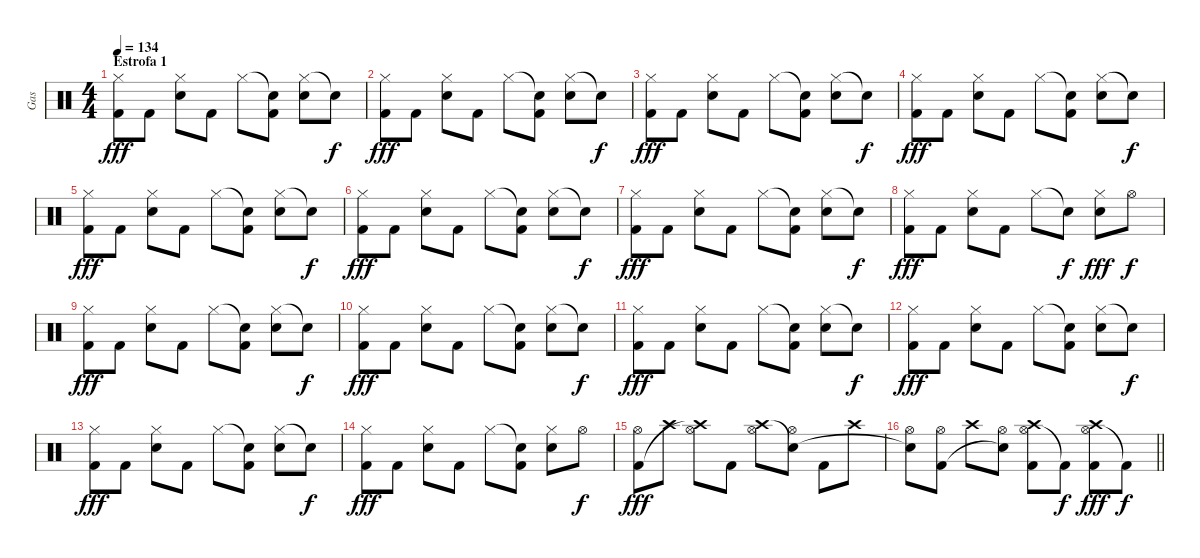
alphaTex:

\track ("Gas" "Gas") {instrument percussion}
\staff {score}
\articulation defaults
\ts (4 4)
\section ("" "Estrofa 1")
\tempo 134
\clef neutral
\ks c
("Hi-Hat (closed)" "Kick (hit) 2").8{dy fff} "Kick (hit) 2".8 ("Hi-Hat (closed)" "Snare (hit) 2").8 "Kick (hit) 2".8 "Hi-Hat (closed)".8 ("Snare (hit)"{t} "Kick (hit) 2").8 ("Hi-Hat (closed)" "Snare (hit) 2").8 "Snare (hit)"{t}.8{dy f} |
("Hi-Hat (closed)" "Kick (hit) 2").8{dy fff} "Kick (hit) 2".8 ("Hi-Hat (closed)" "Snare (hit) 2").8 "Kick (hit) 2".8 "Hi-Hat (closed)".8 ("Snare (hit)"{t} "Kick (hit) 2").8 ("Hi-Hat (closed)" "Snare (hit) 2").8 "Snare (hit)"{t}.8{dy f} |
("Hi-Hat (closed)" "Kick (hit) 2").8{dy fff} "Kick (hit) 2".8 ("Hi-Hat (closed)" "Snare (hit) 2").8 "Kick (hit) 2".8 "Hi-Hat (closed)".8 ("Snare (hit)"{t} "Kick (hit) 2").8 ("Hi-Hat (closed)" "Snare (hit) 2").8 "Snare (hit)"{t}.8{dy f} |
("Hi-Hat (closed)" "Kick (hit) 2").8{dy fff} "Kick (hit) 2".8 ("Hi-Hat (closed)" "Snare (hit) 2").8 "Kick (hit) 2".8 "Hi-Hat (closed)".8 ("Snare (hit)"{t} "Kick (hit) 2").8 ("Hi-Hat (closed)" "Snare (hit) 2").8 "Snare (hit)"{t}.8{dy f} |
("Hi-Hat (closed)" "Kick (hit) 2").8{dy fff} "Kick (hit) 2".8 ("Hi-Hat (closed)" "Snare (hit) 2").8 "Kick (hit) 2".8 "Hi-Hat (closed)".8 ("Snare (hit)"{t} "Kick (hit) 2").8 ("Hi-Hat (closed)" "Snare (hit) 2").8 "Snare (hit)"{t}.8{dy f} |
("Hi-Hat (closed)" "Kick (hit) 2").8{dy fff} "Kick (hit) 2".8 ("Hi-Hat (closed)" "Snare (hit) 2").8 "Kick (hit) 2".8 "Hi-Hat (closed)".8 ("Snare (hit)"{t} "Kick (hit) 2").8 ("Hi-Hat (closed)" "Snare (hit) 2").8 "Snare (hit)"{t}.8{dy f} |
("Hi-Hat (closed)" "Kick (hit) 2").8{dy fff} "Kick (hit) 2".8 ("Hi-Hat (closed)" "Snare (hit) 2").8 "Kick (hit) 2".8 "Hi-Hat (closed)".8 ("Snare (hit)"{t} "Kick (hit) 2").8 ("Hi-Hat (closed)" "Snare (hit) 2").8 "Snare (hit)"{t}.8{dy f} |
("Hi-Hat (closed)" "Kick (hit) 2").8{dy fff} "Kick (hit) 2".8 ("Hi-Hat (closed)" "Snare (hit) 2").8 "Kick (hit) 2".8 "Hi-Hat (closed)".8 "Snare (hit)"{t}.8{dy f} ("Hi-Hat (closed)" "Snare (hit) 2").8{dy fff} "Hi-Hat (open)".8{dy f} |
("Hi-Hat (closed)" "Kick (hit) 2").8{dy fff} "Kick (hit) 2".8 ("Hi-Hat (closed)" "Snare (hit) 2").8 "Kick (hit) 2".8 "Hi-Hat (closed)".8 ("Snare (hit)"{t} "Kick (hit) 2").8 ("Hi-Hat (closed)" "Snare (hit) 2").8 "Snare (hit)"{t}.8{dy f} |
("Hi-Hat (closed)" "Kick (hit) 2").8{dy fff} "Kick (hit) 2".8 ("Hi-Hat (closed)" "Snare (hit) 2").8 "Kick (hit) 2".8 "Hi-Hat (closed)".8 ("Snare (hit)"{t} "Kick (hit) 2").8 ("Hi-Hat (closed)" "Snare (hit) 2").8 "Snare (hit)"{t}.8{dy f} |
("Hi-Hat (closed)" "Kick (hit) 2").8{dy fff} "Kick (hit) 2".8 ("Hi-Hat (closed)" "Snare (hit) 2").8 "Kick (hit) 2".8 "Hi-Hat (closed)".8 ("Snare (hit)"{t} "Kick (hit) 2").8 ("Hi-Hat (closed)" "Snare (hit) 2").8 "Snare (hit)"{t}.8{dy f} |
("Hi-Hat (closed)" "Kick (hit) 2").8{dy fff} "Kick (hit) 2".8 ("Hi-Hat (closed)" "Snare (hit) 2").8 "Kick (hit) 2".8 "Hi-Hat (closed)".8 ("Snare (hit)"{t} "Kick (hit) 2").8 ("Hi-Hat (closed)" "Snare (hit) 2").8 "Snare (hit)"{t}.8{dy f} |
("Hi-Hat (closed)" "Kick (hit) 2").8{dy fff} "Kick (hit) 2".8 ("Hi-Hat (closed)" "Snare (hit) 2").8 "Kick (hit) 2".8 "Hi-Hat (closed)".8 ("Snare (hit)"{t} "Kick (hit) 2").8 ("Hi-Hat (closed)" "Snare (hit) 2").8 "Snare (hit)"{t}.8{dy f} |
("Hi-Hat (closed)" "Kick (hit) 2").8{dy fff} "Kick (hit) 2".8 ("Hi-Hat (closed)" "Snare (hit) 2").8 "Kick (hit) 2".8 "Hi-Hat (closed)".8 ("Snare (hit)"{t} "Kick (hit) 2").8 ("Hi-Hat (closed)" "Snare (hit) 2").8 "Hi-Hat (open)".8{dy f} |
("Hi-Hat (open)" "Kick (hit) 2").8{dy fff} "Crash high (hit)".8 ("Hi-Hat (open)" "Crash high (hit)"{t}).8 "Kick (hit) 2".8 ("Hi-Hat (open)" "Crash high (hit)").8 ("Hi-Hat (open)" "Snare (hit)"{t}).8 "Kick (hit) 2".8 "Crash high (hit)".8 |
\barLineRight lightlight
("Hi-Hat (open)" "Snare (hit)"{t}).8 ("Hi-Hat (open)" "Kick (hit) 2").8 "Crash high (hit)".8 ("Hi-Hat (open)" "Snare (hit)"{t}).8 ("Hi-Hat (open)" "Crash high (hit)" "Kick (hit) 2").8 "Kick (hit) 2"{t}.8{dy f} ("Hi-Hat (open)" "Crash high (hit)" "Kick (hit) 2").8{dy fff} "Kick (hit) 2"{t}.8{dy f}
